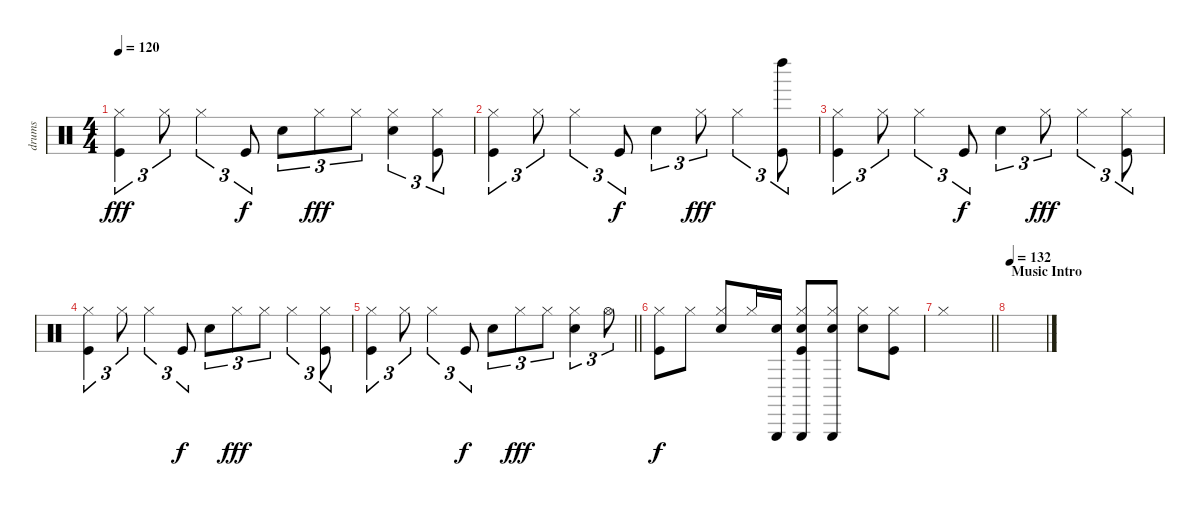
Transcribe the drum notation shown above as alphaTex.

\track ("drums" "drums") {instrument percussion}
\staff {score}
\articulation defaults
\ts (4 4)
\tempo 120
\clef neutral
\ks c
("Hi-Hat (closed)" "Kick (hit)").4{tu (3 2) dy fff} "Hi-Hat (closed)".8{tu (3 2)} "Hi-Hat (closed)".4{tu (3 2)} "Kick (hit)".8{tu (3 2) dy f} "Snare (hit) 2".8{tu (3 2)} "Hi-Hat (closed)".8{tu (3 2) dy fff} "Hi-Hat (closed)".8{tu (3 2)} ("Snare (hit) 2" "Hi-Hat (closed)").4{tu (3 2)} ("Hi-Hat (closed)" "Kick (hit)").8{tu (3 2)} |
("Hi-Hat (closed)" "Kick (hit)").4{tu (3 2)} "Hi-Hat (closed)".8{tu (3 2)} "Hi-Hat (closed)".4{tu (3 2)} "Kick (hit)".8{tu (3 2) dy f} "Snare (hit) 2".4{tu (3 2)} "Hi-Hat (closed)".8{tu (3 2) dy fff} "Hi-Hat (closed)".4{tu (3 2)} ("Left Maraca (hit)" "Kick (hit)").8{tu (3 2)} |
("Hi-Hat (closed)" "Kick (hit)").4{tu (3 2)} "Hi-Hat (closed)".8{tu (3 2)} "Hi-Hat (closed)".4{tu (3 2)} "Kick (hit)".8{tu (3 2) dy f} "Snare (hit) 2".4{tu (3 2)} "Hi-Hat (closed)".8{tu (3 2) dy fff} "Hi-Hat (closed)".4{tu (3 2)} ("Hi-Hat (closed)" "Kick (hit)").8{tu (3 2)} |
("Hi-Hat (closed)" "Kick (hit)").4{tu (3 2)} "Hi-Hat (closed)".8{tu (3 2)} "Hi-Hat (closed)".4{tu (3 2)} "Kick (hit)".8{tu (3 2) dy f} "Snare (hit) 2".8{tu (3 2)} "Hi-Hat (closed)".8{tu (3 2) dy fff} "Hi-Hat (closed)".8{tu (3 2)} "Hi-Hat (closed)".4{tu (3 2)} ("Hi-Hat (closed)" "Kick (hit)").8{tu (3 2)} |
\barLineRight lightlight
("Hi-Hat (closed)" "Kick (hit)").4{tu (3 2)} "Hi-Hat (closed)".8{tu (3 2)} "Hi-Hat (closed)".4{tu (3 2)} "Kick (hit)".8{tu (3 2) dy f} "Snare (hit) 2".8{tu (3 2)} "Hi-Hat (closed)".8{tu (3 2) dy fff} "Hi-Hat (closed)".8{tu (3 2)} ("Snare (hit) 2" "Hi-Hat (closed)").4{tu (3 2)} "Hi-Hat (open)".8{tu (3 2)} |
("Hi-Hat (closed)" "Kick (hit)").8{dy f} "Hi-Hat (closed)".8 ("Snare (hit) 2" "Hi-Hat (closed)").8 "Hi-Hat (closed)".16 ("Metronome (bell)" "Triangle (hit)").16 ("Metronome (bell)" "Triangle (hit)" "Hi-Hat (closed)" "Kick (hit)").8 ("Metronome (bell)" "Triangle (hit)" "Hi-Hat (closed)").8 ("Snare (hit) 2" "Hi-Hat (closed)").8 ("Hi-Hat (closed)" "Kick (hit)").8 |
\barLineRight lightlight "Hi-Hat (closed)".1
|
\section ("" "Music Intro")
\tempo 132
